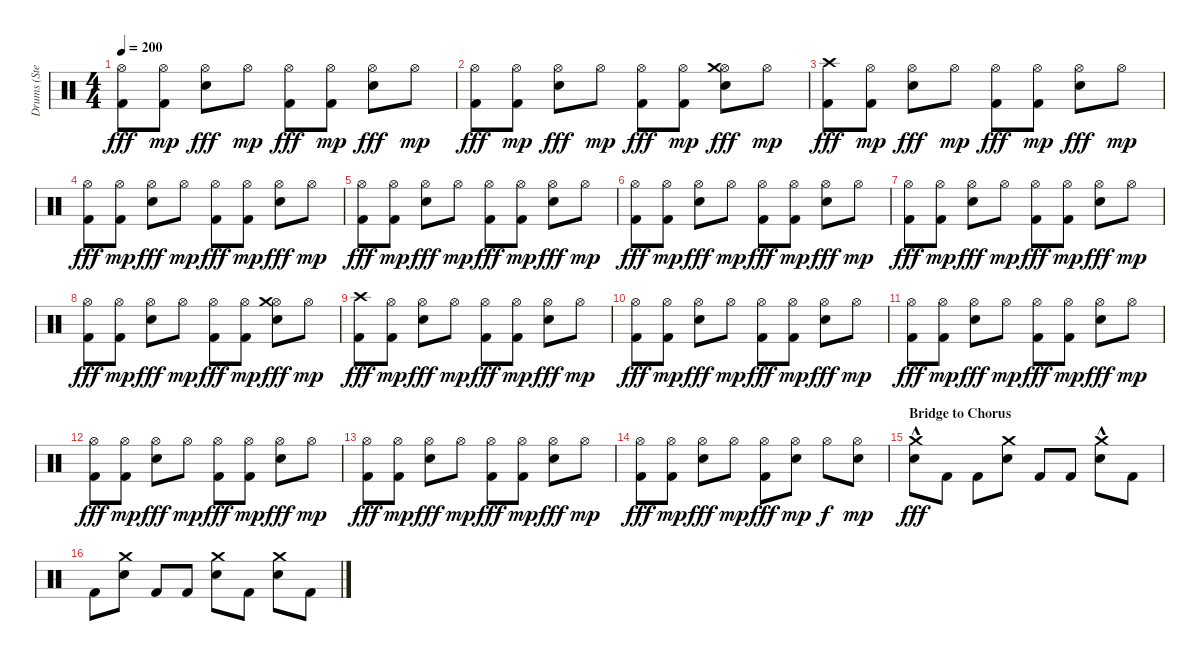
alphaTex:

\track ("Drums (Stevo32)" "Drums (Ste") {instrument percussion}
\staff {score}
\articulation defaults
\ts (4 4)
\tempo 200
\clef neutral
\ks c
("Kick (hit) 2" "Hi-Hat (open)").8{dy fff} ("Kick (hit) 2" "Hi-Hat (open)").8{dy mp} ("Electric Snare (hit)" "Hi-Hat (open)").8{dy fff} "Hi-Hat (open)".8{dy mp} ("Kick (hit) 2" "Hi-Hat (open)").8{dy fff} ("Kick (hit) 2" "Hi-Hat (open)").8{dy mp} ("Electric Snare (hit)" "Hi-Hat (open)").8{dy fff} "Hi-Hat (open)".8{dy mp} |
("Kick (hit) 2" "Hi-Hat (open)").8{dy fff} ("Kick (hit) 2" "Hi-Hat (open)").8{dy mp} ("Electric Snare (hit)" "Hi-Hat (open)").8{dy fff} "Hi-Hat (open)".8{dy mp} ("Kick (hit) 2" "Hi-Hat (open)").8{dy fff} ("Kick (hit) 2" "Hi-Hat (open)").8{dy mp} ("Electric Snare (hit)" "Hi-Hat (open)" "Crash medium (hit)").8{dy fff} "Hi-Hat (open)".8{dy mp} |
("Kick (hit) 2" "Crash high (hit)").8{dy fff} ("Kick (hit) 2" "Hi-Hat (open)").8{dy mp} ("Electric Snare (hit)" "Hi-Hat (open)").8{dy fff} "Hi-Hat (open)".8{dy mp} ("Kick (hit) 2" "Hi-Hat (open)").8{dy fff} ("Kick (hit) 2" "Hi-Hat (open)").8{dy mp} ("Electric Snare (hit)" "Hi-Hat (open)").8{dy fff} "Hi-Hat (open)".8{dy mp} |
("Kick (hit) 2" "Hi-Hat (open)").8{dy fff} ("Kick (hit) 2" "Hi-Hat (open)").8{dy mp} ("Electric Snare (hit)" "Hi-Hat (open)").8{dy fff} "Hi-Hat (open)".8{dy mp} ("Kick (hit) 2" "Hi-Hat (open)").8{dy fff} ("Kick (hit) 2" "Hi-Hat (open)").8{dy mp} ("Electric Snare (hit)" "Hi-Hat (open)").8{dy fff} "Hi-Hat (open)".8{dy mp} |
("Kick (hit) 2" "Hi-Hat (open)").8{dy fff} ("Kick (hit) 2" "Hi-Hat (open)").8{dy mp} ("Electric Snare (hit)" "Hi-Hat (open)").8{dy fff} "Hi-Hat (open)".8{dy mp} ("Kick (hit) 2" "Hi-Hat (open)").8{dy fff} ("Kick (hit) 2" "Hi-Hat (open)").8{dy mp} ("Electric Snare (hit)" "Hi-Hat (open)").8{dy fff} "Hi-Hat (open)".8{dy mp} |
("Kick (hit) 2" "Hi-Hat (open)").8{dy fff} ("Kick (hit) 2" "Hi-Hat (open)").8{dy mp} ("Electric Snare (hit)" "Hi-Hat (open)").8{dy fff} "Hi-Hat (open)".8{dy mp} ("Kick (hit) 2" "Hi-Hat (open)").8{dy fff} ("Kick (hit) 2" "Hi-Hat (open)").8{dy mp} ("Electric Snare (hit)" "Hi-Hat (open)").8{dy fff} "Hi-Hat (open)".8{dy mp} |
("Kick (hit) 2" "Hi-Hat (open)").8{dy fff} ("Kick (hit) 2" "Hi-Hat (open)").8{dy mp} ("Electric Snare (hit)" "Hi-Hat (open)").8{dy fff} "Hi-Hat (open)".8{dy mp} ("Kick (hit) 2" "Hi-Hat (open)").8{dy fff} ("Kick (hit) 2" "Hi-Hat (open)").8{dy mp} ("Electric Snare (hit)" "Hi-Hat (open)").8{dy fff} "Hi-Hat (open)".8{dy mp} |
("Kick (hit) 2" "Hi-Hat (open)").8{dy fff} ("Kick (hit) 2" "Hi-Hat (open)").8{dy mp} ("Electric Snare (hit)" "Hi-Hat (open)").8{dy fff} "Hi-Hat (open)".8{dy mp} ("Kick (hit) 2" "Hi-Hat (open)").8{dy fff} ("Kick (hit) 2" "Hi-Hat (open)").8{dy mp} ("Electric Snare (hit)" "Hi-Hat (open)" "Crash medium (hit)").8{dy fff} "Hi-Hat (open)".8{dy mp} |
("Kick (hit) 2" "Crash high (hit)").8{dy fff} ("Kick (hit) 2" "Hi-Hat (open)").8{dy mp} ("Electric Snare (hit)" "Hi-Hat (open)").8{dy fff} "Hi-Hat (open)".8{dy mp} ("Kick (hit) 2" "Hi-Hat (open)").8{dy fff} ("Kick (hit) 2" "Hi-Hat (open)").8{dy mp} ("Electric Snare (hit)" "Hi-Hat (open)").8{dy fff} "Hi-Hat (open)".8{dy mp} |
("Kick (hit) 2" "Hi-Hat (open)").8{dy fff} ("Kick (hit) 2" "Hi-Hat (open)").8{dy mp} ("Electric Snare (hit)" "Hi-Hat (open)").8{dy fff} "Hi-Hat (open)".8{dy mp} ("Kick (hit) 2" "Hi-Hat (open)").8{dy fff} ("Kick (hit) 2" "Hi-Hat (open)").8{dy mp} ("Electric Snare (hit)" "Hi-Hat (open)").8{dy fff} "Hi-Hat (open)".8{dy mp} |
("Kick (hit) 2" "Hi-Hat (open)").8{dy fff} ("Kick (hit) 2" "Hi-Hat (open)").8{dy mp} ("Electric Snare (hit)" "Hi-Hat (open)").8{dy fff} "Hi-Hat (open)".8{dy mp} ("Kick (hit) 2" "Hi-Hat (open)").8{dy fff} ("Kick (hit) 2" "Hi-Hat (open)").8{dy mp} ("Electric Snare (hit)" "Hi-Hat (open)").8{dy fff} "Hi-Hat (open)".8{dy mp} |
("Kick (hit) 2" "Hi-Hat (open)").8{dy fff} ("Kick (hit) 2" "Hi-Hat (open)").8{dy mp} ("Electric Snare (hit)" "Hi-Hat (open)").8{dy fff} "Hi-Hat (open)".8{dy mp} ("Kick (hit) 2" "Hi-Hat (open)").8{dy fff} ("Kick (hit) 2" "Hi-Hat (open)").8{dy mp} ("Electric Snare (hit)" "Hi-Hat (open)").8{dy fff} "Hi-Hat (open)".8{dy mp} |
("Kick (hit) 2" "Hi-Hat (open)").8{dy fff} ("Kick (hit) 2" "Hi-Hat (open)").8{dy mp} ("Electric Snare (hit)" "Hi-Hat (open)").8{dy fff} "Hi-Hat (open)".8{dy mp} ("Kick (hit) 2" "Hi-Hat (open)").8{dy fff} ("Kick (hit) 2" "Hi-Hat (open)").8{dy mp} ("Electric Snare (hit)" "Hi-Hat (open)").8{dy fff} "Hi-Hat (open)".8{dy mp} |
("Kick (hit) 2" "Hi-Hat (open)").8{dy fff} ("Kick (hit) 2" "Hi-Hat (open)").8{dy mp} ("Electric Snare (hit)" "Hi-Hat (open)").8{dy fff} "Hi-Hat (open)".8{dy mp} ("Kick (hit) 2" "Hi-Hat (open)").8{dy fff} ("Electric Snare (hit)" "Hi-Hat (open)").8{dy mp} "Hi-Hat (open)".8{dy f} ("Electric Snare (hit)" "Hi-Hat (open)").8{dy mp} |
\section ("" "Bridge to Chorus")
("Electric Snare (hit)" "Crash medium (hit)"{hac}).8{dy fff} "Kick (hit) 2".8 "Kick (hit) 2".8 ("Electric Snare (hit)" "Crash medium (hit)").8 "Kick (hit) 2".8 "Kick (hit) 2".8 ("Electric Snare (hit)" "Crash medium (hit)"{hac}).8 "Kick (hit) 2".8 |
"Kick (hit) 2".8 ("Electric Snare (hit)" "Crash medium (hit)").8 "Kick (hit) 2".8 "Kick (hit) 2".8 ("Electric Snare (hit)" "Crash medium (hit)").8 "Kick (hit) 2".8 ("Electric Snare (hit)" "Crash medium (hit)").8 "Kick (hit) 2".8
